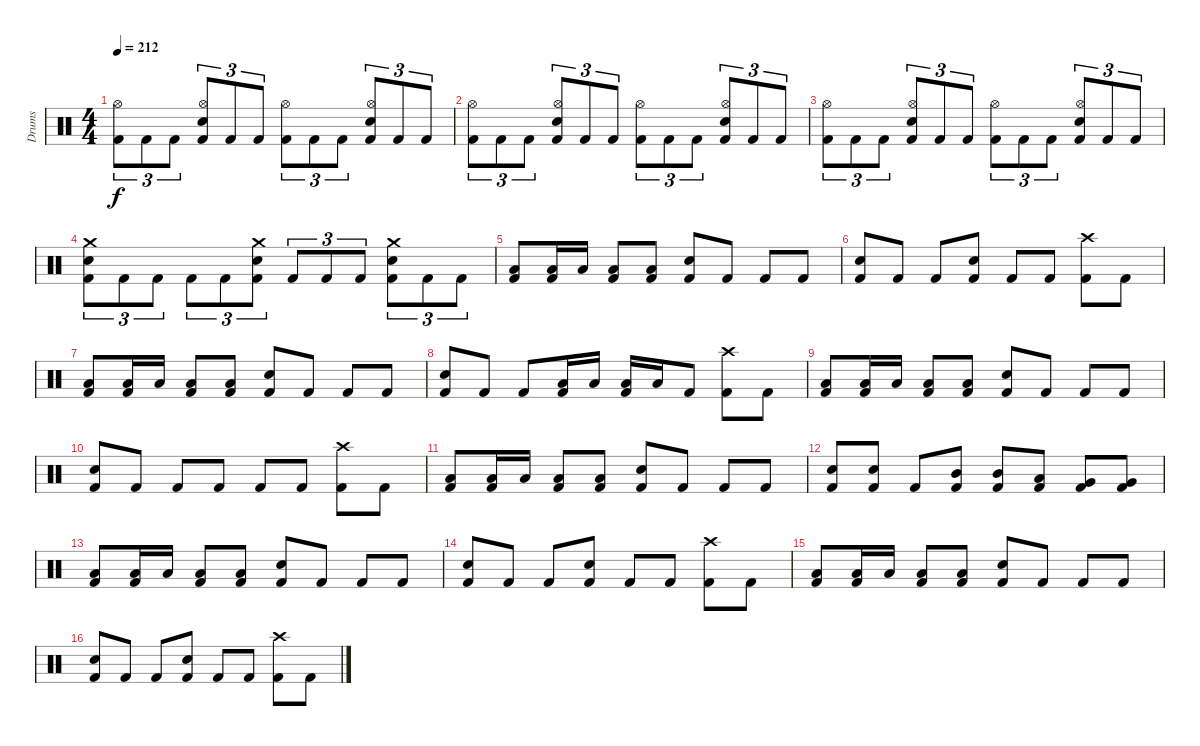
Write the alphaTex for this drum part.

\track ("Drums" "Drums") {instrument percussion}
\staff {score}
\articulation defaults
\ts (4 4)
\tempo 212
\clef neutral
\ks c
("Kick (hit) 2" "Hi-Hat (open)").8{tu (3 2) dy f} "Kick (hit) 2".8{tu (3 2)} "Kick (hit) 2".8{tu (3 2)} ("Kick (hit) 2" "Snare (hit) 2" "Hi-Hat (open)").8{tu (3 2)} "Kick (hit) 2".8{tu (3 2)} "Kick (hit) 2".8{tu (3 2)} ("Kick (hit) 2" "Hi-Hat (open)").8{tu (3 2)} "Kick (hit) 2".8{tu (3 2)} "Kick (hit) 2".8{tu (3 2)} ("Kick (hit) 2" "Snare (hit) 2" "Hi-Hat (open)").8{tu (3 2)} "Kick (hit) 2".8{tu (3 2)} "Kick (hit) 2".8{tu (3 2)} |
("Kick (hit) 2" "Hi-Hat (open)").8{tu (3 2)} "Kick (hit) 2".8{tu (3 2)} "Kick (hit) 2".8{tu (3 2)} ("Kick (hit) 2" "Snare (hit) 2" "Hi-Hat (open)").8{tu (3 2)} "Kick (hit) 2".8{tu (3 2)} "Kick (hit) 2".8{tu (3 2)} ("Kick (hit) 2" "Hi-Hat (open)").8{tu (3 2)} "Kick (hit) 2".8{tu (3 2)} "Kick (hit) 2".8{tu (3 2)} ("Kick (hit) 2" "Snare (hit) 2" "Hi-Hat (open)").8{tu (3 2)} "Kick (hit) 2".8{tu (3 2)} "Kick (hit) 2".8{tu (3 2)} |
("Kick (hit) 2" "Hi-Hat (open)").8{tu (3 2)} "Kick (hit) 2".8{tu (3 2)} "Kick (hit) 2".8{tu (3 2)} ("Kick (hit) 2" "Snare (hit) 2" "Hi-Hat (open)").8{tu (3 2)} "Kick (hit) 2".8{tu (3 2)} "Kick (hit) 2".8{tu (3 2)} ("Kick (hit) 2" "Hi-Hat (open)").8{tu (3 2)} "Kick (hit) 2".8{tu (3 2)} "Kick (hit) 2".8{tu (3 2)} ("Kick (hit) 2" "Snare (hit) 2" "Hi-Hat (open)").8{tu (3 2)} "Kick (hit) 2".8{tu (3 2)} "Kick (hit) 2".8{tu (3 2)} |
("Kick (hit) 2" "Snare (hit) 2" "Crash medium (hit)").8{tu (3 2)} "Kick (hit) 2".8{tu (3 2)} "Kick (hit) 2".8{tu (3 2)} "Kick (hit) 2".8{tu (3 2)} "Kick (hit) 2".8{tu (3 2)} ("Kick (hit) 2" "Snare (hit) 2" "Crash medium (hit)").8{tu (3 2)} "Kick (hit) 2".8{tu (3 2)} "Kick (hit) 2".8{tu (3 2)} "Kick (hit) 2".8{tu (3 2)} ("Kick (hit) 2" "Snare (hit) 2" "Crash medium (hit)").8{tu (3 2)} "Kick (hit) 2".8{tu (3 2)} "Kick (hit) 2".8{tu (3 2)} |
("Kick (hit) 2" "Low Tom (hit)").8 ("Kick (hit) 2" "Low Tom (hit)").16 "Low Tom (hit)".16 ("Kick (hit) 2" "Low Tom (hit)").8 ("Kick (hit) 2" "Low Tom (hit)").8 ("Kick (hit) 2" "Snare (hit) 2").8 "Kick (hit) 2".8 "Kick (hit) 2".8 "Kick (hit) 2".8 |
("Kick (hit) 2" "Snare (hit) 2").8 "Kick (hit) 2".8 "Kick (hit) 2".8 ("Kick (hit) 2" "Snare (hit) 2").8 "Kick (hit) 2".8 "Kick (hit) 2".8 ("Kick (hit) 2" "Crash high (hit)").8 "Kick (hit) 2".8 |
("Kick (hit) 2" "Low Tom (hit)").8 ("Kick (hit) 2" "Low Tom (hit)").16 "Low Tom (hit)".16 ("Kick (hit) 2" "Low Tom (hit)").8 ("Kick (hit) 2" "Low Tom (hit)").8 ("Kick (hit) 2" "Snare (hit) 2").8 "Kick (hit) 2".8 "Kick (hit) 2".8 "Kick (hit) 2".8 |
("Kick (hit) 2" "Snare (hit) 2").8 "Kick (hit) 2".8 "Kick (hit) 2".8 ("Kick (hit) 2" "Low Tom (hit)").16 "Low Tom (hit)".16 ("Kick (hit) 2" "Low Tom (hit)").16 "Low Tom (hit)".16 "Kick (hit) 2".8 ("Kick (hit) 2" "Crash high (hit)").8 "Kick (hit) 2".8 |
("Kick (hit) 2" "Low Tom (hit)").8 ("Kick (hit) 2" "Low Tom (hit)").16 "Low Tom (hit)".16 ("Kick (hit) 2" "Low Tom (hit)").8 ("Kick (hit) 2" "Low Tom (hit)").8 ("Kick (hit) 2" "Snare (hit) 2").8 "Kick (hit) 2".8 "Kick (hit) 2".8 "Kick (hit) 2".8 |
("Kick (hit) 2" "Snare (hit) 2").8 "Kick (hit) 2".8 "Kick (hit) 2".8 "Kick (hit) 2".8 "Kick (hit) 2".8 "Kick (hit) 2".8 ("Kick (hit) 2" "Crash high (hit)").8 "Kick (hit) 2".8 |
("Kick (hit) 2" "Low Tom (hit)").8 ("Kick (hit) 2" "Low Tom (hit)").16 "Low Tom (hit)".16 ("Kick (hit) 2" "Low Tom (hit)").8 ("Kick (hit) 2" "Low Tom (hit)").8 ("Kick (hit) 2" "Snare (hit) 2").8 "Kick (hit) 2".8 "Kick (hit) 2".8 "Kick (hit) 2".8 |
("Kick (hit) 2" "Snare (hit) 2").8 ("Kick (hit) 2" "Snare (hit) 2").8 "Kick (hit) 2".8 ("Kick (hit) 2" "Mid Tom (hit)").8 ("Kick (hit) 2" "Mid Tom (hit)").8 ("Kick (hit) 2" "Low Tom (hit)").8 ("Kick (hit) 2" "Very Low Tom (hit)").8 ("Kick (hit) 2" "Very Low Tom (hit)").8 |
("Kick (hit) 2" "Low Tom (hit)").8 ("Kick (hit) 2" "Low Tom (hit)").16 "Low Tom (hit)".16 ("Kick (hit) 2" "Low Tom (hit)").8 ("Kick (hit) 2" "Low Tom (hit)").8 ("Kick (hit) 2" "Snare (hit) 2").8 "Kick (hit) 2".8 "Kick (hit) 2".8 "Kick (hit) 2".8 |
("Kick (hit) 2" "Snare (hit) 2").8 "Kick (hit) 2".8 "Kick (hit) 2".8 ("Kick (hit) 2" "Snare (hit) 2").8 "Kick (hit) 2".8 "Kick (hit) 2".8 ("Kick (hit) 2" "Crash high (hit)").8 "Kick (hit) 2".8 |
("Kick (hit) 2" "Low Tom (hit)").8 ("Kick (hit) 2" "Low Tom (hit)").16 "Low Tom (hit)".16 ("Kick (hit) 2" "Low Tom (hit)").8 ("Kick (hit) 2" "Low Tom (hit)").8 ("Kick (hit) 2" "Snare (hit) 2").8 "Kick (hit) 2".8 "Kick (hit) 2".8 "Kick (hit) 2".8 |
("Kick (hit) 2" "Snare (hit) 2").8 "Kick (hit) 2".8 "Kick (hit) 2".8 ("Kick (hit) 2" "Snare (hit) 2").8 "Kick (hit) 2".8 "Kick (hit) 2".8 ("Kick (hit) 2" "Crash high (hit)").8 "Kick (hit) 2".8
